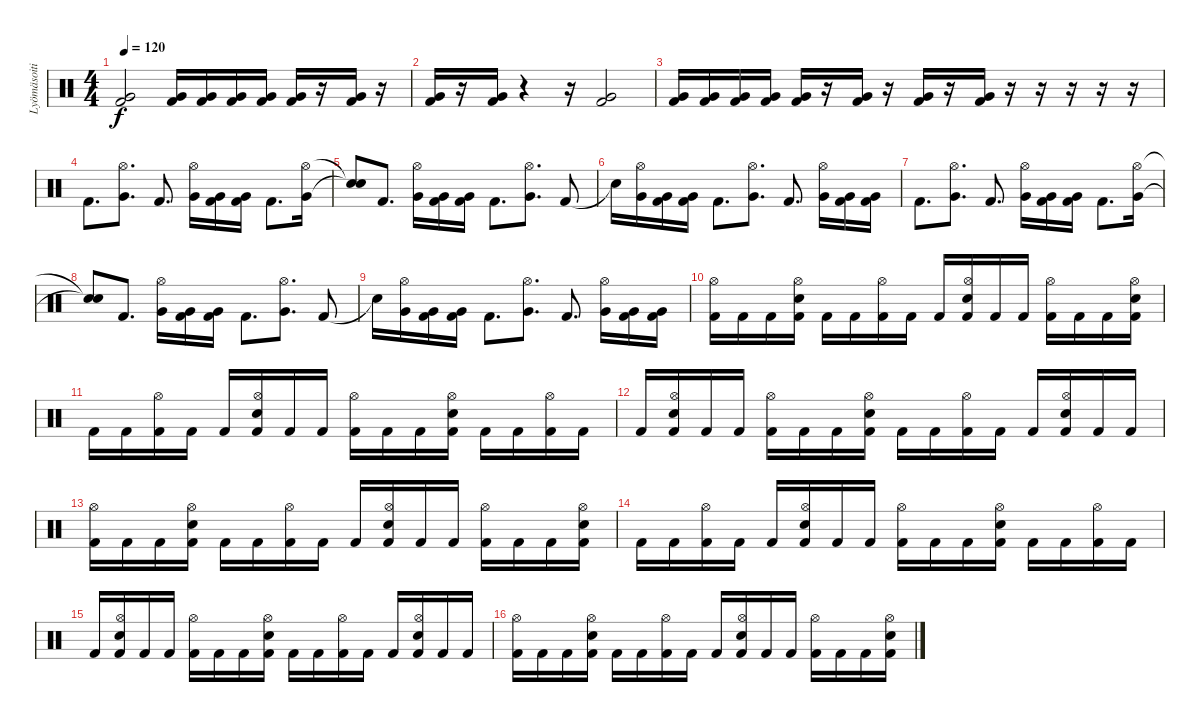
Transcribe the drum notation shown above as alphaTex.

\track ("Lyömäsoitin" "Lyömäsoiti") {instrument percussion}
\staff {score}
\articulation defaults
\ts (4 4)
\tempo 120
\clef neutral
\ks c
("Very Low Tom (hit)" "Kick (hit) 2").2{dy f} ("Very Low Tom (hit)" "Kick (hit) 2").16 ("Very Low Tom (hit)" "Kick (hit) 2").16 ("Very Low Tom (hit)" "Kick (hit) 2").16 ("Very Low Tom (hit)" "Kick (hit) 2").16 ("Very Low Tom (hit)" "Kick (hit) 2").16 r.16 ("Very Low Tom (hit)" "Kick (hit) 2").16 r.16 |
("Very Low Tom (hit)" "Kick (hit) 2").16 r.16 ("Very Low Tom (hit)" "Kick (hit) 2").16 r.4 r.16 ("Very Low Tom (hit)" "Kick (hit) 2").2 |
("Very Low Tom (hit)" "Kick (hit) 2").16 ("Very Low Tom (hit)" "Kick (hit) 2").16 ("Very Low Tom (hit)" "Kick (hit) 2").16 ("Very Low Tom (hit)" "Kick (hit) 2").16 ("Very Low Tom (hit)" "Kick (hit) 2").16 r.16 ("Very Low Tom (hit)" "Kick (hit) 2").16 r.16 ("Very Low Tom (hit)" "Kick (hit) 2").16 r.16 ("Very Low Tom (hit)" "Kick (hit) 2").16 r.16 r.16 r.16 r.16 r.16 |
"Kick (hit) 2".8{d} ("Hi-Hat (open)" "Very Low Tom (hit)").8{d} "Kick (hit) 2".8{d} ("Hi-Hat (open)" "Very Low Tom (hit)").16 ("Very Low Tom (hit)" "Kick (hit) 2").16 ("Very Low Tom (hit)" "Kick (hit) 2").16 "Kick (hit) 2".8{d} ("Hi-Hat (open)" "Very Low Tom (hit)").16 |
("Snare (hit)"{t} "Snare (hit)"{t}).8 "Kick (hit) 2".8{d} ("Hi-Hat (open)" "Very Low Tom (hit)").16 ("Very Low Tom (hit)" "Kick (hit) 2").16 ("Very Low Tom (hit)" "Kick (hit) 2").16 "Kick (hit) 2".8{d} ("Hi-Hat (open)" "Very Low Tom (hit)").8{d} "Kick (hit) 2".8 |
"Snare (hit)"{t}.16 ("Hi-Hat (open)" "Very Low Tom (hit)").16 ("Very Low Tom (hit)" "Kick (hit) 2").16 ("Very Low Tom (hit)" "Kick (hit) 2").16 "Kick (hit) 2".8{d} ("Hi-Hat (open)" "Very Low Tom (hit)").8{d} "Kick (hit) 2".8{d} ("Hi-Hat (open)" "Very Low Tom (hit)").16 ("Very Low Tom (hit)" "Kick (hit) 2").16 ("Very Low Tom (hit)" "Kick (hit) 2").16 |
"Kick (hit) 2".8{d} ("Hi-Hat (open)" "Very Low Tom (hit)").8{d} "Kick (hit) 2".8{d} ("Hi-Hat (open)" "Very Low Tom (hit)").16 ("Very Low Tom (hit)" "Kick (hit) 2").16 ("Very Low Tom (hit)" "Kick (hit) 2").16 "Kick (hit) 2".8{d} ("Hi-Hat (open)" "Very Low Tom (hit)").16 |
("Snare (hit)"{t} "Snare (hit)"{t}).8 "Kick (hit) 2".8{d} ("Hi-Hat (open)" "Very Low Tom (hit)").16 ("Very Low Tom (hit)" "Kick (hit) 2").16 ("Very Low Tom (hit)" "Kick (hit) 2").16 "Kick (hit) 2".8{d} ("Hi-Hat (open)" "Very Low Tom (hit)").8{d} "Kick (hit) 2".8 |
"Snare (hit)"{t}.16 ("Hi-Hat (open)" "Very Low Tom (hit)").16 ("Very Low Tom (hit)" "Kick (hit) 2").16 ("Very Low Tom (hit)" "Kick (hit) 2").16 "Kick (hit) 2".8{d} ("Hi-Hat (open)" "Very Low Tom (hit)").8{d} "Kick (hit) 2".8{d} ("Hi-Hat (open)" "Very Low Tom (hit)").16 ("Very Low Tom (hit)" "Kick (hit) 2").16 ("Very Low Tom (hit)" "Kick (hit) 2").16 |
("Hi-Hat (open)" "Kick (hit) 2").16 "Kick (hit) 2".16 "Kick (hit) 2".16 ("Hi-Hat (open)" "Electric Snare (hit)" "Kick (hit) 2").16 "Kick (hit) 2".16 "Kick (hit) 2".16 ("Hi-Hat (open)" "Kick (hit) 2").16 "Kick (hit) 2".16 "Kick (hit) 2".16 ("Hi-Hat (open)" "Electric Snare (hit)" "Kick (hit) 2").16 "Kick (hit) 2".16 "Kick (hit) 2".16 ("Hi-Hat (open)" "Kick (hit) 2").16 "Kick (hit) 2".16 "Kick (hit) 2".16 ("Hi-Hat (open)" "Electric Snare (hit)" "Kick (hit) 2").16 |
"Kick (hit) 2".16 "Kick (hit) 2".16 ("Hi-Hat (open)" "Kick (hit) 2").16 "Kick (hit) 2".16 "Kick (hit) 2".16 ("Hi-Hat (open)" "Electric Snare (hit)" "Kick (hit) 2").16 "Kick (hit) 2".16 "Kick (hit) 2".16 ("Hi-Hat (open)" "Kick (hit) 2").16 "Kick (hit) 2".16 "Kick (hit) 2".16 ("Hi-Hat (open)" "Electric Snare (hit)" "Kick (hit) 2").16 "Kick (hit) 2".16 "Kick (hit) 2".16 ("Hi-Hat (open)" "Kick (hit) 2").16 "Kick (hit) 2".16 |
"Kick (hit) 2".16 ("Hi-Hat (open)" "Electric Snare (hit)" "Kick (hit) 2").16 "Kick (hit) 2".16 "Kick (hit) 2".16 ("Hi-Hat (open)" "Kick (hit) 2").16 "Kick (hit) 2".16 "Kick (hit) 2".16 ("Hi-Hat (open)" "Electric Snare (hit)" "Kick (hit) 2").16 "Kick (hit) 2".16 "Kick (hit) 2".16 ("Hi-Hat (open)" "Kick (hit) 2").16 "Kick (hit) 2".16 "Kick (hit) 2".16 ("Hi-Hat (open)" "Electric Snare (hit)" "Kick (hit) 2").16 "Kick (hit) 2".16 "Kick (hit) 2".16 |
("Hi-Hat (open)" "Kick (hit) 2").16 "Kick (hit) 2".16 "Kick (hit) 2".16 ("Hi-Hat (open)" "Electric Snare (hit)" "Kick (hit) 2").16 "Kick (hit) 2".16 "Kick (hit) 2".16 ("Hi-Hat (open)" "Kick (hit) 2").16 "Kick (hit) 2".16 "Kick (hit) 2".16 ("Hi-Hat (open)" "Electric Snare (hit)" "Kick (hit) 2").16 "Kick (hit) 2".16 "Kick (hit) 2".16 ("Hi-Hat (open)" "Kick (hit) 2").16 "Kick (hit) 2".16 "Kick (hit) 2".16 ("Hi-Hat (open)" "Electric Snare (hit)" "Kick (hit) 2").16 |
"Kick (hit) 2".16 "Kick (hit) 2".16 ("Hi-Hat (open)" "Kick (hit) 2").16 "Kick (hit) 2".16 "Kick (hit) 2".16 ("Hi-Hat (open)" "Electric Snare (hit)" "Kick (hit) 2").16 "Kick (hit) 2".16 "Kick (hit) 2".16 ("Hi-Hat (open)" "Kick (hit) 2").16 "Kick (hit) 2".16 "Kick (hit) 2".16 ("Hi-Hat (open)" "Electric Snare (hit)" "Kick (hit) 2").16 "Kick (hit) 2".16 "Kick (hit) 2".16 ("Hi-Hat (open)" "Kick (hit) 2").16 "Kick (hit) 2".16 |
"Kick (hit) 2".16 ("Hi-Hat (open)" "Electric Snare (hit)" "Kick (hit) 2").16 "Kick (hit) 2".16 "Kick (hit) 2".16 ("Hi-Hat (open)" "Kick (hit) 2").16 "Kick (hit) 2".16 "Kick (hit) 2".16 ("Hi-Hat (open)" "Electric Snare (hit)" "Kick (hit) 2").16 "Kick (hit) 2".16 "Kick (hit) 2".16 ("Hi-Hat (open)" "Kick (hit) 2").16 "Kick (hit) 2".16 "Kick (hit) 2".16 ("Hi-Hat (open)" "Electric Snare (hit)" "Kick (hit) 2").16 "Kick (hit) 2".16 "Kick (hit) 2".16 |
("Hi-Hat (open)" "Kick (hit) 2").16 "Kick (hit) 2".16 "Kick (hit) 2".16 ("Hi-Hat (open)" "Electric Snare (hit)" "Kick (hit) 2").16 "Kick (hit) 2".16 "Kick (hit) 2".16 ("Hi-Hat (open)" "Kick (hit) 2").16 "Kick (hit) 2".16 "Kick (hit) 2".16 ("Hi-Hat (open)" "Electric Snare (hit)" "Kick (hit) 2").16 "Kick (hit) 2".16 "Kick (hit) 2".16 ("Hi-Hat (open)" "Kick (hit) 2").16 "Kick (hit) 2".16 "Kick (hit) 2".16 ("Hi-Hat (open)" "Electric Snare (hit)" "Kick (hit) 2").16
